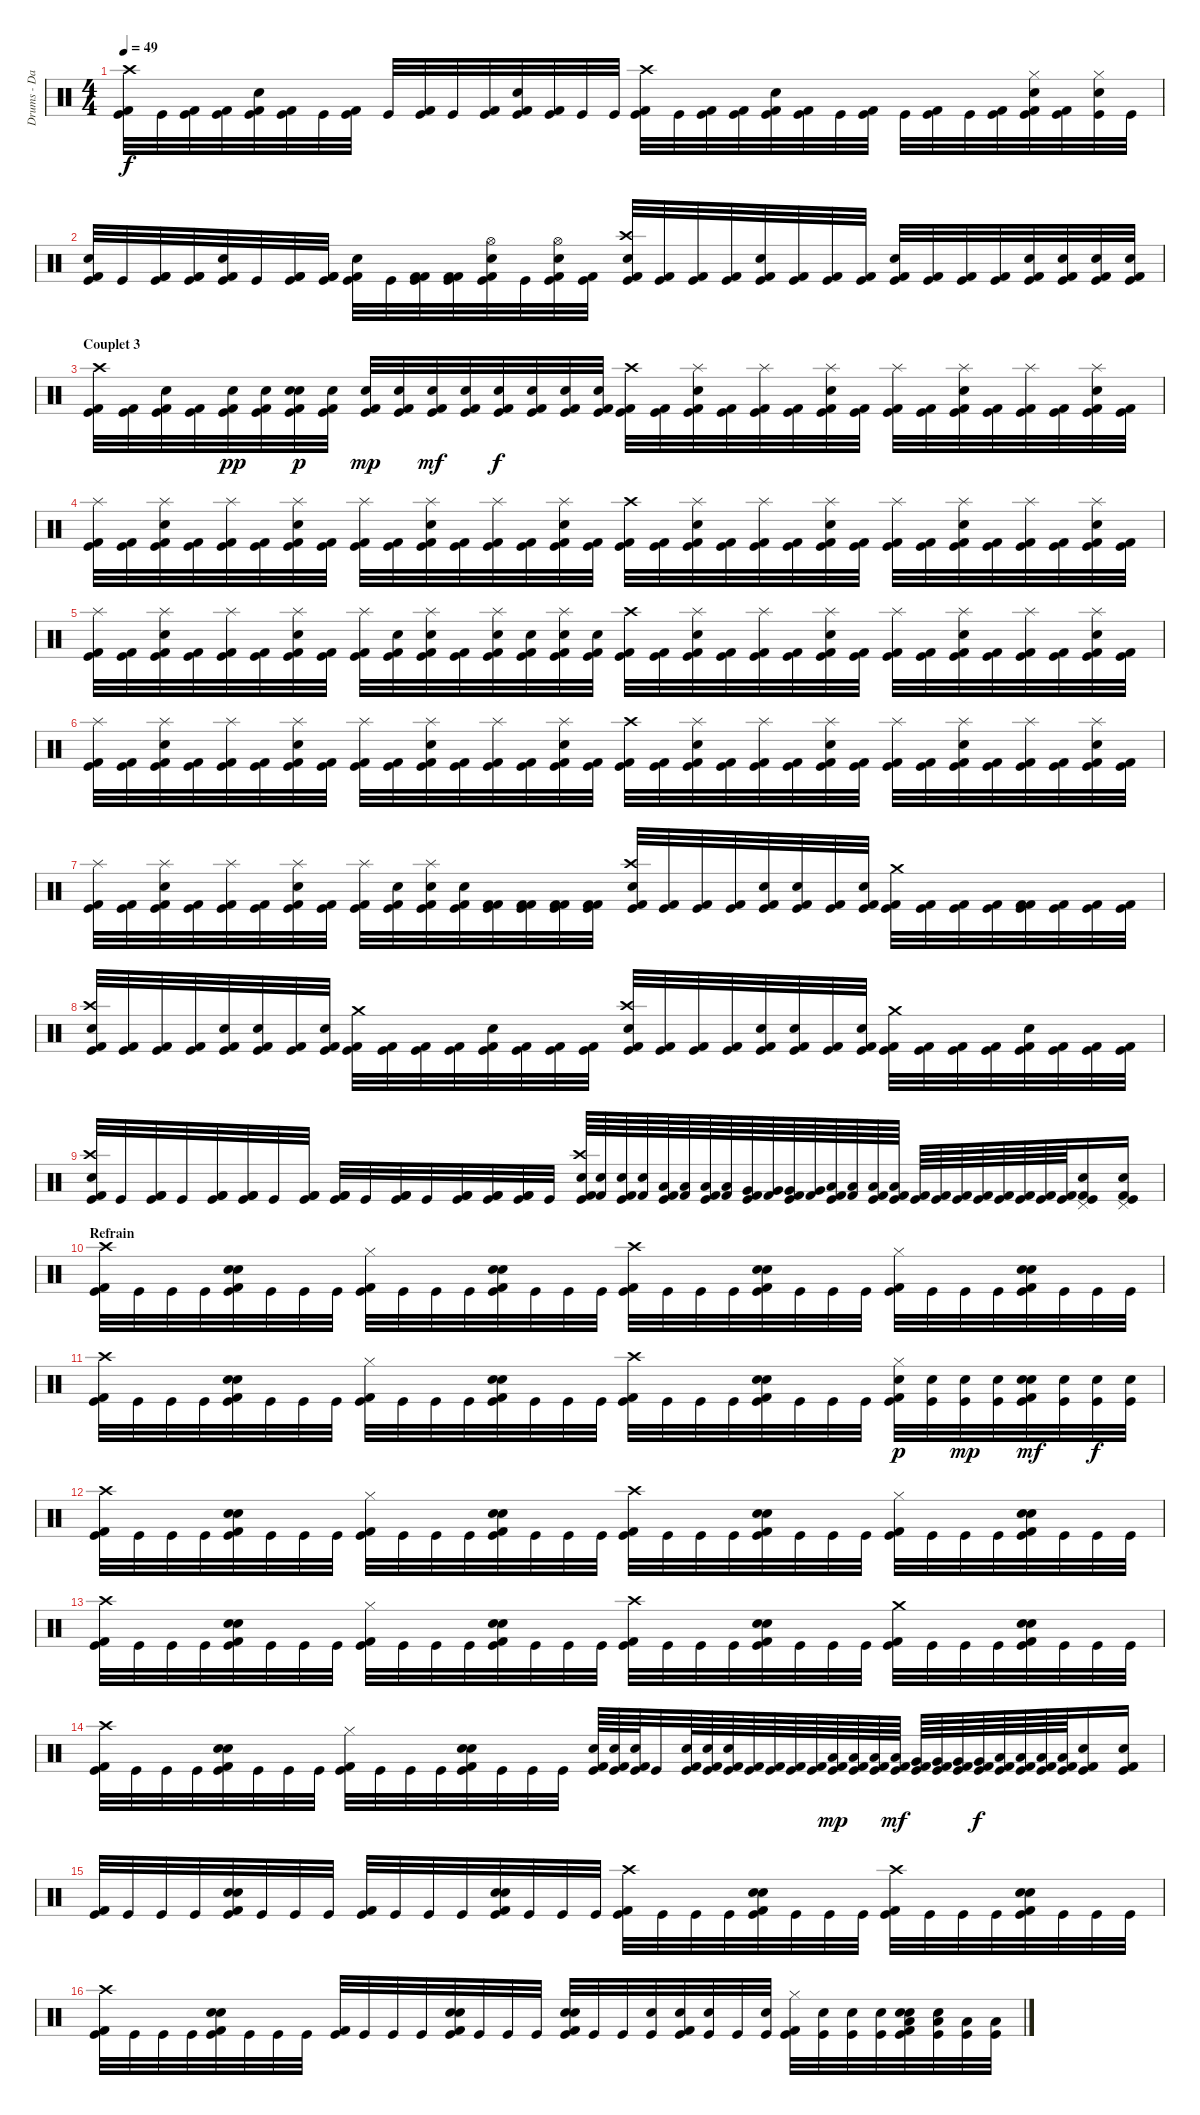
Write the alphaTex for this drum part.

\track ("Drums - Dan Zimmermann" "Drums - Da") {instrument percussion}
\staff {score}
\articulation defaults
\ts (4 4)
\tempo 49
\clef neutral
\ks c
("Kick (hit)" "Kick (hit) 2" "Crash high (hit)").32{dy f} "Kick (hit)".32 ("Kick (hit)" "Kick (hit) 2").32 ("Kick (hit)" "Kick (hit) 2").32 ("Kick (hit)" "Kick (hit) 2" "Electric Snare (hit)").32 ("Kick (hit)" "Kick (hit) 2").32 "Kick (hit)".32 ("Kick (hit)" "Kick (hit) 2").32 "Kick (hit)".32 ("Kick (hit)" "Kick (hit) 2").32 "Kick (hit)".32 ("Kick (hit)" "Kick (hit) 2").32 ("Kick (hit)" "Kick (hit) 2" "Electric Snare (hit)").32 ("Kick (hit)" "Kick (hit) 2").32 "Kick (hit)".32 "Kick (hit)".32 ("Kick (hit)" "Kick (hit) 2" "Crash high (hit)").32 "Kick (hit)".32 ("Kick (hit)" "Kick (hit) 2").32 ("Kick (hit)" "Kick (hit) 2").32 ("Kick (hit)" "Kick (hit) 2" "Electric Snare (hit)").32 ("Kick (hit)" "Kick (hit) 2").32 "Kick (hit)".32 ("Kick (hit)" "Kick (hit) 2").32 "Kick (hit)".32 ("Kick (hit)" "Kick (hit) 2").32 "Kick (hit)".32 ("Kick (hit)" "Kick (hit) 2").32 ("Kick (hit)" "Kick (hit) 2" "Electric Snare (hit)" "Hi-Hat (closed)").32 ("Kick (hit)" "Kick (hit) 2").32 ("Kick (hit)" "Electric Snare (hit)" "Hi-Hat (closed)").32 "Kick (hit)".32 |
("Kick (hit)" "Kick (hit) 2" "Electric Snare (hit)").32 "Kick (hit)".32 ("Kick (hit)" "Kick (hit) 2" "Kick (hit) 2").32 ("Kick (hit)" "Kick (hit) 2" "Kick (hit) 2").32 ("Kick (hit)" "Kick (hit) 2" "Electric Snare (hit)").32 "Kick (hit)".32 ("Kick (hit)" "Kick (hit) 2" "Kick (hit) 2").32 ("Kick (hit)" "Kick (hit) 2" "Kick (hit) 2").32 ("Kick (hit)" "Kick (hit) 2" "Electric Snare (hit)").32 "Kick (hit)".32 ("Kick (hit)" "Kick (hit) 2" "Kick (hit) 2").32 ("Kick (hit)" "Kick (hit) 2" "Kick (hit) 2").32 ("Kick (hit)" "Kick (hit) 2" "Electric Snare (hit)" "Hi-Hat (open)").32 "Kick (hit)".32 ("Kick (hit)" "Kick (hit) 2" "Electric Snare (hit)" "Hi-Hat (open)").32 ("Kick (hit)" "Kick (hit) 2").32 ("Kick (hit)" "Kick (hit) 2" "Electric Snare (hit)" "Crash high (hit)").32 ("Kick (hit)" "Kick (hit) 2").32 ("Kick (hit)" "Kick (hit) 2").32 ("Kick (hit)" "Kick (hit) 2").32 ("Kick (hit)" "Kick (hit) 2" "Electric Snare (hit)").32 ("Kick (hit)" "Kick (hit) 2").32 ("Kick (hit)" "Kick (hit) 2").32 ("Kick (hit)" "Kick (hit) 2").32 ("Kick (hit)" "Kick (hit) 2" "Electric Snare (hit)").32 ("Kick (hit)" "Kick (hit) 2").32 ("Kick (hit)" "Kick (hit) 2").32 ("Kick (hit)" "Kick (hit) 2").32 ("Kick (hit)" "Kick (hit) 2" "Electric Snare (hit)").32 ("Kick (hit)" "Kick (hit) 2" "Electric Snare (hit)").32 ("Kick (hit)" "Kick (hit) 2" "Electric Snare (hit)").32 ("Kick (hit)" "Kick (hit) 2" "Electric Snare (hit)").32 |
\section ("" "Couplet 3")
("Kick (hit)" "Kick (hit) 2" "Crash high (hit)").32 ("Kick (hit)" "Kick (hit) 2").32 ("Kick (hit)" "Kick (hit) 2" "Electric Snare (hit)").32 ("Kick (hit)" "Kick (hit) 2").32 ("Kick (hit)" "Kick (hit) 2" "Electric Snare (hit)").32{dy pp} ("Kick (hit)" "Kick (hit) 2" "Electric Snare (hit)").32 ("Kick (hit)" "Kick (hit) 2" "Electric Snare (hit)" "Electric Snare (hit)").32{dy p} ("Kick (hit)" "Kick (hit) 2" "Electric Snare (hit)").32 ("Kick (hit)" "Kick (hit) 2" "Electric Snare (hit)").32{dy mp} ("Kick (hit)" "Kick (hit) 2" "Electric Snare (hit)").32 ("Kick (hit)" "Kick (hit) 2" "Electric Snare (hit)").32{dy mf} ("Kick (hit)" "Kick (hit) 2" "Electric Snare (hit)").32 ("Kick (hit)" "Kick (hit) 2" "Electric Snare (hit)").32{dy f} ("Kick (hit)" "Kick (hit) 2" "Electric Snare (hit)").32 ("Kick (hit)" "Kick (hit) 2" "Electric Snare (hit)").32 ("Kick (hit)" "Kick (hit) 2" "Electric Snare (hit)").32 ("Kick (hit)" "Kick (hit) 2" "Crash high (hit)").32 ("Kick (hit)" "Kick (hit) 2").32 ("Kick (hit)" "Kick (hit) 2" "Electric Snare (hit)" "Splash (hit)").32 ("Kick (hit)" "Kick (hit) 2").32 ("Kick (hit)" "Kick (hit) 2" "Splash (hit)").32 ("Kick (hit)" "Kick (hit) 2").32 ("Kick (hit)" "Kick (hit) 2" "Electric Snare (hit)" "Splash (hit)").32 ("Kick (hit)" "Kick (hit) 2").32 ("Kick (hit)" "Kick (hit) 2" "Splash (hit)").32 ("Kick (hit)" "Kick (hit) 2").32 ("Kick (hit)" "Kick (hit) 2" "Electric Snare (hit)" "Splash (hit)").32 ("Kick (hit)" "Kick (hit) 2").32 ("Kick (hit)" "Kick (hit) 2" "Splash (hit)").32 ("Kick (hit)" "Kick (hit) 2").32 ("Kick (hit)" "Kick (hit) 2" "Electric Snare (hit)" "Splash (hit)").32 ("Kick (hit)" "Kick (hit) 2").32 |
("Kick (hit)" "Kick (hit) 2" "Splash (hit)").32 ("Kick (hit)" "Kick (hit) 2").32 ("Kick (hit)" "Kick (hit) 2" "Electric Snare (hit)" "Splash (hit)").32 ("Kick (hit)" "Kick (hit) 2").32 ("Kick (hit)" "Kick (hit) 2" "Splash (hit)").32 ("Kick (hit)" "Kick (hit) 2").32 ("Kick (hit)" "Kick (hit) 2" "Electric Snare (hit)" "Splash (hit)").32 ("Kick (hit)" "Kick (hit) 2").32 ("Kick (hit)" "Kick (hit) 2" "Splash (hit)").32 ("Kick (hit)" "Kick (hit) 2").32 ("Kick (hit)" "Kick (hit) 2" "Electric Snare (hit)" "Splash (hit)").32 ("Kick (hit)" "Kick (hit) 2").32 ("Kick (hit)" "Kick (hit) 2" "Splash (hit)").32 ("Kick (hit)" "Kick (hit) 2").32 ("Kick (hit)" "Kick (hit) 2" "Electric Snare (hit)" "Splash (hit)").32 ("Kick (hit)" "Kick (hit) 2").32 ("Kick (hit)" "Kick (hit) 2" "Crash high (hit)").32 ("Kick (hit)" "Kick (hit) 2").32 ("Kick (hit)" "Kick (hit) 2" "Electric Snare (hit)" "Splash (hit)").32 ("Kick (hit)" "Kick (hit) 2").32 ("Kick (hit)" "Kick (hit) 2" "Splash (hit)").32 ("Kick (hit)" "Kick (hit) 2").32 ("Kick (hit)" "Kick (hit) 2" "Electric Snare (hit)" "Splash (hit)").32 ("Kick (hit)" "Kick (hit) 2").32 ("Kick (hit)" "Kick (hit) 2" "Splash (hit)").32 ("Kick (hit)" "Kick (hit) 2").32 ("Kick (hit)" "Kick (hit) 2" "Electric Snare (hit)" "Splash (hit)").32 ("Kick (hit)" "Kick (hit) 2").32 ("Kick (hit)" "Kick (hit) 2" "Splash (hit)").32 ("Kick (hit)" "Kick (hit) 2").32 ("Kick (hit)" "Kick (hit) 2" "Electric Snare (hit)" "Splash (hit)").32 ("Kick (hit)" "Kick (hit) 2").32 |
("Kick (hit)" "Kick (hit) 2" "Splash (hit)").32 ("Kick (hit)" "Kick (hit) 2").32 ("Kick (hit)" "Kick (hit) 2" "Electric Snare (hit)" "Splash (hit)").32 ("Kick (hit)" "Kick (hit) 2").32 ("Kick (hit)" "Kick (hit) 2" "Splash (hit)").32 ("Kick (hit)" "Kick (hit) 2").32 ("Kick (hit)" "Kick (hit) 2" "Electric Snare (hit)" "Splash (hit)").32 ("Kick (hit)" "Kick (hit) 2").32 ("Kick (hit)" "Kick (hit) 2" "Splash (hit)").32 ("Kick (hit)" "Kick (hit) 2" "Electric Snare (hit)").32 ("Kick (hit)" "Kick (hit) 2" "Electric Snare (hit)" "Splash (hit)").32 ("Kick (hit)" "Kick (hit) 2").32 ("Kick (hit)" "Kick (hit) 2" "Electric Snare (hit)" "Splash (hit)").32 ("Kick (hit)" "Kick (hit) 2" "Electric Snare (hit)").32 ("Kick (hit)" "Kick (hit) 2" "Electric Snare (hit)" "Splash (hit)").32 ("Kick (hit)" "Kick (hit) 2" "Electric Snare (hit)").32 ("Kick (hit)" "Kick (hit) 2" "Crash high (hit)").32 ("Kick (hit)" "Kick (hit) 2").32 ("Kick (hit)" "Kick (hit) 2" "Electric Snare (hit)" "Splash (hit)").32 ("Kick (hit)" "Kick (hit) 2").32 ("Kick (hit)" "Kick (hit) 2" "Splash (hit)").32 ("Kick (hit)" "Kick (hit) 2").32 ("Kick (hit)" "Kick (hit) 2" "Electric Snare (hit)" "Splash (hit)").32 ("Kick (hit)" "Kick (hit) 2").32 ("Kick (hit)" "Kick (hit) 2" "Splash (hit)").32 ("Kick (hit)" "Kick (hit) 2").32 ("Kick (hit)" "Kick (hit) 2" "Electric Snare (hit)" "Splash (hit)").32 ("Kick (hit)" "Kick (hit) 2").32 ("Kick (hit)" "Kick (hit) 2" "Splash (hit)").32 ("Kick (hit)" "Kick (hit) 2").32 ("Kick (hit)" "Kick (hit) 2" "Electric Snare (hit)" "Splash (hit)").32 ("Kick (hit)" "Kick (hit) 2").32 |
("Kick (hit)" "Kick (hit) 2" "Splash (hit)").32 ("Kick (hit)" "Kick (hit) 2").32 ("Kick (hit)" "Kick (hit) 2" "Electric Snare (hit)" "Splash (hit)").32 ("Kick (hit)" "Kick (hit) 2").32 ("Kick (hit)" "Kick (hit) 2" "Splash (hit)").32 ("Kick (hit)" "Kick (hit) 2").32 ("Kick (hit)" "Kick (hit) 2" "Electric Snare (hit)" "Splash (hit)").32 ("Kick (hit)" "Kick (hit) 2").32 ("Kick (hit)" "Kick (hit) 2" "Splash (hit)").32 ("Kick (hit)" "Kick (hit) 2").32 ("Kick (hit)" "Kick (hit) 2" "Electric Snare (hit)" "Splash (hit)").32 ("Kick (hit)" "Kick (hit) 2").32 ("Kick (hit)" "Kick (hit) 2" "Splash (hit)").32 ("Kick (hit)" "Kick (hit) 2").32 ("Kick (hit)" "Kick (hit) 2" "Electric Snare (hit)" "Splash (hit)").32 ("Kick (hit)" "Kick (hit) 2").32 ("Kick (hit)" "Kick (hit) 2" "Crash high (hit)").32 ("Kick (hit)" "Kick (hit) 2").32 ("Kick (hit)" "Kick (hit) 2" "Electric Snare (hit)" "Splash (hit)").32 ("Kick (hit)" "Kick (hit) 2").32 ("Kick (hit)" "Kick (hit) 2" "Splash (hit)").32 ("Kick (hit)" "Kick (hit) 2").32 ("Kick (hit)" "Kick (hit) 2" "Electric Snare (hit)" "Splash (hit)").32 ("Kick (hit)" "Kick (hit) 2").32 ("Kick (hit)" "Kick (hit) 2" "Splash (hit)").32 ("Kick (hit)" "Kick (hit) 2").32 ("Kick (hit)" "Kick (hit) 2" "Electric Snare (hit)" "Splash (hit)").32 ("Kick (hit)" "Kick (hit) 2").32 ("Kick (hit)" "Kick (hit) 2" "Splash (hit)").32 ("Kick (hit)" "Kick (hit) 2").32 ("Kick (hit)" "Kick (hit) 2" "Electric Snare (hit)" "Splash (hit)").32 ("Kick (hit)" "Kick (hit) 2").32 |
("Kick (hit)" "Kick (hit) 2" "Splash (hit)").32 ("Kick (hit)" "Kick (hit) 2").32 ("Kick (hit)" "Kick (hit) 2" "Electric Snare (hit)" "Splash (hit)").32 ("Kick (hit)" "Kick (hit) 2").32 ("Kick (hit)" "Kick (hit) 2" "Splash (hit)").32 ("Kick (hit)" "Kick (hit) 2").32 ("Kick (hit)" "Kick (hit) 2" "Electric Snare (hit)" "Splash (hit)").32 ("Kick (hit)" "Kick (hit) 2").32 ("Kick (hit)" "Kick (hit) 2" "Splash (hit)").32 ("Kick (hit)" "Kick (hit) 2" "Electric Snare (hit)").32 ("Kick (hit)" "Kick (hit) 2" "Electric Snare (hit)" "Splash (hit)").32 ("Kick (hit)" "Kick (hit) 2" "Electric Snare (hit)").32 ("Kick (hit)" "Kick (hit) 2" "Kick (hit) 2").32 ("Kick (hit)" "Kick (hit) 2" "Kick (hit) 2").32 ("Kick (hit)" "Kick (hit) 2" "Kick (hit) 2").32 ("Kick (hit)" "Kick (hit) 2" "Kick (hit) 2").32 ("Kick (hit)" "Kick (hit) 2" "Electric Snare (hit)" "Crash high (hit)").32 ("Kick (hit)" "Kick (hit) 2").32 ("Kick (hit)" "Kick (hit) 2").32 ("Kick (hit)" "Kick (hit) 2").32 ("Kick (hit)" "Kick (hit) 2" "Electric Snare (hit)").32 ("Kick (hit)" "Kick (hit) 2" "Electric Snare (hit)").32 ("Kick (hit)" "Kick (hit) 2").32 ("Kick (hit)" "Kick (hit) 2" "Electric Snare (hit)").32 ("Kick (hit)" "Kick (hit) 2" "Crash medium (hit)").32 ("Kick (hit)" "Kick (hit) 2").32 ("Kick (hit)" "Kick (hit) 2").32 ("Kick (hit)" "Kick (hit) 2").32 ("Kick (hit)" "Kick (hit) 2" "Kick (hit) 2").32 ("Kick (hit)" "Kick (hit) 2").32 ("Kick (hit)" "Kick (hit) 2").32 ("Kick (hit)" "Kick (hit) 2").32 |
("Kick (hit)" "Kick (hit) 2" "Electric Snare (hit)" "Crash high (hit)").32 ("Kick (hit)" "Kick (hit) 2").32 ("Kick (hit)" "Kick (hit) 2").32 ("Kick (hit)" "Kick (hit) 2").32 ("Kick (hit)" "Kick (hit) 2" "Electric Snare (hit)").32 ("Kick (hit)" "Kick (hit) 2" "Electric Snare (hit)").32 ("Kick (hit)" "Kick (hit) 2").32 ("Kick (hit)" "Kick (hit) 2" "Electric Snare (hit)").32 ("Kick (hit)" "Kick (hit) 2" "Crash medium (hit)").32 ("Kick (hit)" "Kick (hit) 2").32 ("Kick (hit)" "Kick (hit) 2").32 ("Kick (hit)" "Kick (hit) 2").32 ("Kick (hit)" "Kick (hit) 2" "Electric Snare (hit)").32 ("Kick (hit)" "Kick (hit) 2").32 ("Kick (hit)" "Kick (hit) 2").32 ("Kick (hit)" "Kick (hit) 2").32 ("Kick (hit)" "Kick (hit) 2" "Electric Snare (hit)" "Crash high (hit)").32 ("Kick (hit)" "Kick (hit) 2").32 ("Kick (hit)" "Kick (hit) 2").32 ("Kick (hit)" "Kick (hit) 2").32 ("Kick (hit)" "Kick (hit) 2" "Electric Snare (hit)").32 ("Kick (hit)" "Kick (hit) 2" "Electric Snare (hit)").32 ("Kick (hit)" "Kick (hit) 2").32 ("Kick (hit)" "Kick (hit) 2" "Electric Snare (hit)").32 ("Kick (hit)" "Kick (hit) 2" "Crash medium (hit)").32 ("Kick (hit)" "Kick (hit) 2").32 ("Kick (hit)" "Kick (hit) 2").32 ("Kick (hit)" "Kick (hit) 2").32 ("Kick (hit)" "Kick (hit) 2" "Electric Snare (hit)").32 ("Kick (hit)" "Kick (hit) 2").32 ("Kick (hit)" "Kick (hit) 2").32 ("Kick (hit)" "Kick (hit) 2").32 |
("Kick (hit)" "Kick (hit) 2" "Electric Snare (hit)" "Crash high (hit)").32 "Kick (hit)".32 ("Kick (hit)" "Kick (hit) 2" "Kick (hit) 2").32 "Kick (hit)".32 ("Kick (hit)" "Kick (hit) 2" "Kick (hit) 2").32 ("Kick (hit)" "Kick (hit) 2" "Kick (hit) 2").32 "Kick (hit)".32 ("Kick (hit)" "Kick (hit) 2" "Kick (hit) 2").32 ("Kick (hit)" "Kick (hit) 2" "Kick (hit) 2").32 "Kick (hit)".32 ("Kick (hit)" "Kick (hit) 2" "Kick (hit) 2").32 "Kick (hit)".32 ("Kick (hit)" "Kick (hit) 2" "Kick (hit) 2").32 ("Kick (hit)" "Kick (hit) 2" "Kick (hit) 2").32 ("Kick (hit)" "Kick (hit) 2" "Kick (hit) 2").32 "Kick (hit)".32 ("Kick (hit)" "Kick (hit) 2" "Electric Snare (hit)" "Crash high (hit)").64 ("Kick (hit) 2" "Electric Snare (hit)").64 ("Kick (hit)" "Kick (hit) 2" "Electric Snare (hit)").64 ("Kick (hit) 2" "Electric Snare (hit)").64 ("Kick (hit)" "Kick (hit) 2" "Low Tom (hit)").64 ("Kick (hit) 2" "Low Tom (hit)").64 ("Kick (hit)" "Kick (hit) 2" "Low Tom (hit)").64 ("Kick (hit) 2" "Low Tom (hit)").64 ("Kick (hit)" "Kick (hit) 2" "Very Low Tom (hit)").64 ("Kick (hit) 2" "Very Low Tom (hit)").64 ("Kick (hit)" "Kick (hit) 2" "Very Low Tom (hit)").64 ("Kick (hit) 2" "Very Low Tom (hit)").64 ("Kick (hit)" "Kick (hit) 2" "Low Floor Tom (hit)").64 ("Kick (hit) 2" "Low Floor Tom (hit)").64 ("Kick (hit)" "Kick (hit) 2" "Low Floor Tom (hit)").64 ("Kick (hit)" "Kick (hit) 2" "Low Floor Tom (hit)").64 ("Kick (hit)" "Kick (hit) 2").64 ("Kick (hit)" "Kick (hit) 2").64 ("Kick (hit)" "Kick (hit) 2").64 ("Kick (hit)" "Kick (hit) 2").64 ("Kick (hit)" "Kick (hit) 2").64 ("Kick (hit)" "Kick (hit) 2").64 ("Kick (hit)" "Kick (hit) 2").64 ("Kick (hit)" "Kick (hit) 2").64 ("Kick (hit)" "Kick (hit) 2" "Electric Snare (hit)" "Pedal Hi-Hat (hit)").16 ("Kick (hit)" "Kick (hit) 2" "Electric Snare (hit)" "Pedal Hi-Hat (hit)").16 |
\section ("" "Refrain ")
("Kick (hit)" "Kick (hit) 2" "Crash high (hit)").32 "Kick (hit)".32 "Kick (hit)".32 "Kick (hit)".32 ("Kick (hit)" "Kick (hit) 2" "Snare (hit) 2" "Electric Snare (hit)").32 "Kick (hit)".32 "Kick (hit)".32 "Kick (hit)".32 ("Kick (hit)" "Kick (hit) 2" "Hi-Hat (closed)").32 "Kick (hit)".32 "Kick (hit)".32 "Kick (hit)".32 ("Kick (hit)" "Kick (hit) 2" "Snare (hit) 2" "Electric Snare (hit)").32 "Kick (hit)".32 "Kick (hit)".32 "Kick (hit)".32 ("Kick (hit)" "Kick (hit) 2" "Crash high (hit)").32 "Kick (hit)".32 "Kick (hit)".32 "Kick (hit)".32 ("Kick (hit)" "Kick (hit) 2" "Snare (hit) 2" "Electric Snare (hit)").32 "Kick (hit)".32 "Kick (hit)".32 "Kick (hit)".32 ("Kick (hit)" "Kick (hit) 2" "Hi-Hat (closed)").32 "Kick (hit)".32 "Kick (hit)".32 "Kick (hit)".32 ("Kick (hit)" "Kick (hit) 2" "Snare (hit) 2" "Electric Snare (hit)").32 "Kick (hit)".32 "Kick (hit)".32 "Kick (hit)".32 |
("Kick (hit)" "Kick (hit) 2" "Crash high (hit)").32 "Kick (hit)".32 "Kick (hit)".32 "Kick (hit)".32 ("Kick (hit)" "Kick (hit) 2" "Snare (hit) 2" "Electric Snare (hit)").32 "Kick (hit)".32 "Kick (hit)".32 "Kick (hit)".32 ("Kick (hit)" "Kick (hit) 2" "Hi-Hat (closed)").32 "Kick (hit)".32 "Kick (hit)".32 "Kick (hit)".32 ("Kick (hit)" "Kick (hit) 2" "Snare (hit) 2" "Electric Snare (hit)").32 "Kick (hit)".32 "Kick (hit)".32 "Kick (hit)".32 ("Kick (hit)" "Kick (hit) 2" "Crash high (hit)").32 "Kick (hit)".32 "Kick (hit)".32 "Kick (hit)".32 ("Kick (hit)" "Kick (hit) 2" "Snare (hit) 2" "Electric Snare (hit)").32 "Kick (hit)".32 "Kick (hit)".32 "Kick (hit)".32 ("Kick (hit)" "Kick (hit) 2" "Electric Snare (hit)" "Hi-Hat (closed)").32{dy p} ("Kick (hit)" "Electric Snare (hit)").32 ("Kick (hit)" "Electric Snare (hit)").32{dy mp} ("Kick (hit)" "Electric Snare (hit)").32 ("Kick (hit)" "Kick (hit) 2" "Electric Snare (hit)" "Electric Snare (hit)").32{dy mf} ("Kick (hit)" "Electric Snare (hit)").32 ("Kick (hit)" "Electric Snare (hit)").32{dy f} ("Kick (hit)" "Electric Snare (hit)").32 |
("Kick (hit)" "Kick (hit) 2" "Crash high (hit)").32 "Kick (hit)".32 "Kick (hit)".32 "Kick (hit)".32 ("Kick (hit)" "Kick (hit) 2" "Snare (hit) 2" "Electric Snare (hit)").32 "Kick (hit)".32 "Kick (hit)".32 "Kick (hit)".32 ("Kick (hit)" "Kick (hit) 2" "Hi-Hat (closed)").32 "Kick (hit)".32 "Kick (hit)".32 "Kick (hit)".32 ("Kick (hit)" "Kick (hit) 2" "Snare (hit) 2" "Electric Snare (hit)").32 "Kick (hit)".32 "Kick (hit)".32 "Kick (hit)".32 ("Kick (hit)" "Kick (hit) 2" "Crash high (hit)").32 "Kick (hit)".32 "Kick (hit)".32 "Kick (hit)".32 ("Kick (hit)" "Kick (hit) 2" "Snare (hit) 2" "Electric Snare (hit)").32 "Kick (hit)".32 "Kick (hit)".32 "Kick (hit)".32 ("Kick (hit)" "Kick (hit) 2" "Hi-Hat (closed)").32 "Kick (hit)".32 "Kick (hit)".32 "Kick (hit)".32 ("Kick (hit)" "Kick (hit) 2" "Snare (hit) 2" "Electric Snare (hit)").32 "Kick (hit)".32 "Kick (hit)".32 "Kick (hit)".32 |
("Kick (hit)" "Kick (hit) 2" "Crash high (hit)").32 "Kick (hit)".32 "Kick (hit)".32 "Kick (hit)".32 ("Kick (hit)" "Kick (hit) 2" "Snare (hit) 2" "Electric Snare (hit)").32 "Kick (hit)".32 "Kick (hit)".32 "Kick (hit)".32 ("Kick (hit)" "Kick (hit) 2" "Hi-Hat (closed)").32 "Kick (hit)".32 "Kick (hit)".32 "Kick (hit)".32 ("Kick (hit)" "Kick (hit) 2" "Snare (hit) 2" "Electric Snare (hit)").32 "Kick (hit)".32 "Kick (hit)".32 "Kick (hit)".32 ("Kick (hit)" "Kick (hit) 2" "Crash high (hit)").32 "Kick (hit)".32 "Kick (hit)".32 "Kick (hit)".32 ("Kick (hit)" "Kick (hit) 2" "Snare (hit) 2" "Electric Snare (hit)").32 "Kick (hit)".32 "Kick (hit)".32 "Kick (hit)".32 ("Kick (hit)" "Kick (hit) 2" "Crash medium (hit)").32 "Kick (hit)".32 "Kick (hit)".32 "Kick (hit)".32 ("Kick (hit)" "Kick (hit) 2" "Snare (hit) 2" "Electric Snare (hit)").32 "Kick (hit)".32 "Kick (hit)".32 "Kick (hit)".32 |
("Kick (hit)" "Kick (hit) 2" "Crash high (hit)").32 "Kick (hit)".32 "Kick (hit)".32 "Kick (hit)".32 ("Kick (hit)" "Kick (hit) 2" "Snare (hit) 2" "Electric Snare (hit)").32 "Kick (hit)".32 "Kick (hit)".32 "Kick (hit)".32 ("Kick (hit)" "Kick (hit) 2" "Hi-Hat (closed)").32 "Kick (hit)".32 "Kick (hit)".32 "Kick (hit)".32 ("Kick (hit)" "Kick (hit) 2" "Snare (hit) 2" "Electric Snare (hit)").32 "Kick (hit)".32 "Kick (hit)".32 "Kick (hit)".32 ("Kick (hit)" "Kick (hit) 2" "Electric Snare (hit)").64 ("Kick (hit)" "Kick (hit) 2" "Electric Snare (hit)").64 ("Kick (hit)" "Kick (hit) 2" "Electric Snare (hit)").64 "Kick (hit)".32 ("Kick (hit)" "Kick (hit) 2" "Electric Snare (hit)").64 ("Kick (hit)" "Kick (hit) 2" "Electric Snare (hit)").64 ("Kick (hit)" "Kick (hit) 2" "Electric Snare (hit)").64 ("Kick (hit)" "Kick (hit) 2").64 ("Kick (hit)" "Kick (hit) 2").64 ("Kick (hit)" "Kick (hit) 2").64 ("Kick (hit)" "Kick (hit) 2").64 ("Kick (hit)" "Kick (hit) 2" "Low Floor Tom (hit)").64{dy mp} ("Kick (hit)" "Kick (hit) 2" "Low Floor Tom (hit)").64 ("Kick (hit)" "Kick (hit) 2" "Low Floor Tom (hit)").64 ("Kick (hit)" "Kick (hit) 2" "Low Floor Tom (hit)").64{dy mf} ("Kick (hit)" "Kick (hit) 2" "Very Low Tom (hit)").64 ("Kick (hit)" "Kick (hit) 2" "Very Low Tom (hit)").64 ("Kick (hit)" "Kick (hit) 2" "Very Low Tom (hit)").64 ("Kick (hit)" "Kick (hit) 2" "Very Low Tom (hit)").64{dy f} ("Kick (hit)" "Kick (hit) 2" "Low Tom (hit)").64 ("Kick (hit)" "Kick (hit) 2" "Low Tom (hit)").64 ("Kick (hit)" "Kick (hit) 2" "Low Tom (hit)").64 ("Kick (hit)" "Kick (hit) 2" "Low Tom (hit)").64 ("Kick (hit)" "Kick (hit) 2" "Electric Snare (hit)").16 ("Kick (hit)" "Kick (hit) 2" "Electric Snare (hit)").16 |
("Kick (hit)" "Kick (hit) 2").32 "Kick (hit)".32 "Kick (hit)".32 "Kick (hit)".32 ("Kick (hit)" "Kick (hit) 2" "Snare (hit) 2" "Electric Snare (hit)").32 "Kick (hit)".32 "Kick (hit)".32 "Kick (hit)".32 ("Kick (hit)" "Kick (hit) 2").32 "Kick (hit)".32 "Kick (hit)".32 "Kick (hit)".32 ("Kick (hit)" "Kick (hit) 2" "Snare (hit) 2" "Electric Snare (hit)").32 "Kick (hit)".32 "Kick (hit)".32 "Kick (hit)".32 ("Kick (hit)" "Kick (hit) 2" "Crash high (hit)").32 "Kick (hit)".32 "Kick (hit)".32 "Kick (hit)".32 ("Kick (hit)" "Kick (hit) 2" "Snare (hit) 2" "Electric Snare (hit)").32 "Kick (hit)".32 "Kick (hit)".32 "Kick (hit)".32 ("Kick (hit)" "Kick (hit) 2" "Crash high (hit)").32 "Kick (hit)".32 "Kick (hit)".32 "Kick (hit)".32 ("Kick (hit)" "Kick (hit) 2" "Snare (hit) 2" "Electric Snare (hit)").32 "Kick (hit)".32 "Kick (hit)".32 "Kick (hit)".32 |
("Kick (hit)" "Kick (hit) 2" "Crash high (hit)").32 "Kick (hit)".32 "Kick (hit)".32 "Kick (hit)".32 ("Kick (hit)" "Kick (hit) 2" "Snare (hit) 2" "Electric Snare (hit)").32 "Kick (hit)".32 "Kick (hit)".32 "Kick (hit)".32 ("Kick (hit)" "Kick (hit) 2").32 "Kick (hit)".32 "Kick (hit)".32 "Kick (hit)".32 ("Kick (hit)" "Kick (hit) 2" "Snare (hit) 2" "Electric Snare (hit)").32 "Kick (hit)".32 "Kick (hit)".32 "Kick (hit)".32 ("Kick (hit)" "Kick (hit) 2" "Snare (hit) 2" "Electric Snare (hit)").32 "Kick (hit)".32 "Kick (hit)".32 ("Kick (hit)" "Electric Snare (hit)").32 ("Kick (hit)" "Kick (hit) 2" "Snare (hit) 2").32 ("Kick (hit)" "Electric Snare (hit)").32 "Kick (hit)".32 ("Kick (hit)" "Electric Snare (hit)").32 ("Kick (hit)" "Kick (hit) 2" "Hi-Hat (closed)").32 ("Kick (hit)" "Electric Snare (hit)").32 ("Kick (hit)" "Electric Snare (hit)").32 ("Kick (hit)" "Electric Snare (hit)").32 ("Kick (hit)" "Kick (hit) 2" "Snare (hit) 2" "Low Tom (hit)" "Electric Snare (hit)").32 ("Kick (hit)" "Low Tom (hit)" "Electric Snare (hit)").32 ("Kick (hit)" "Low Tom (hit)").32 ("Kick (hit)" "Low Tom (hit)").32
